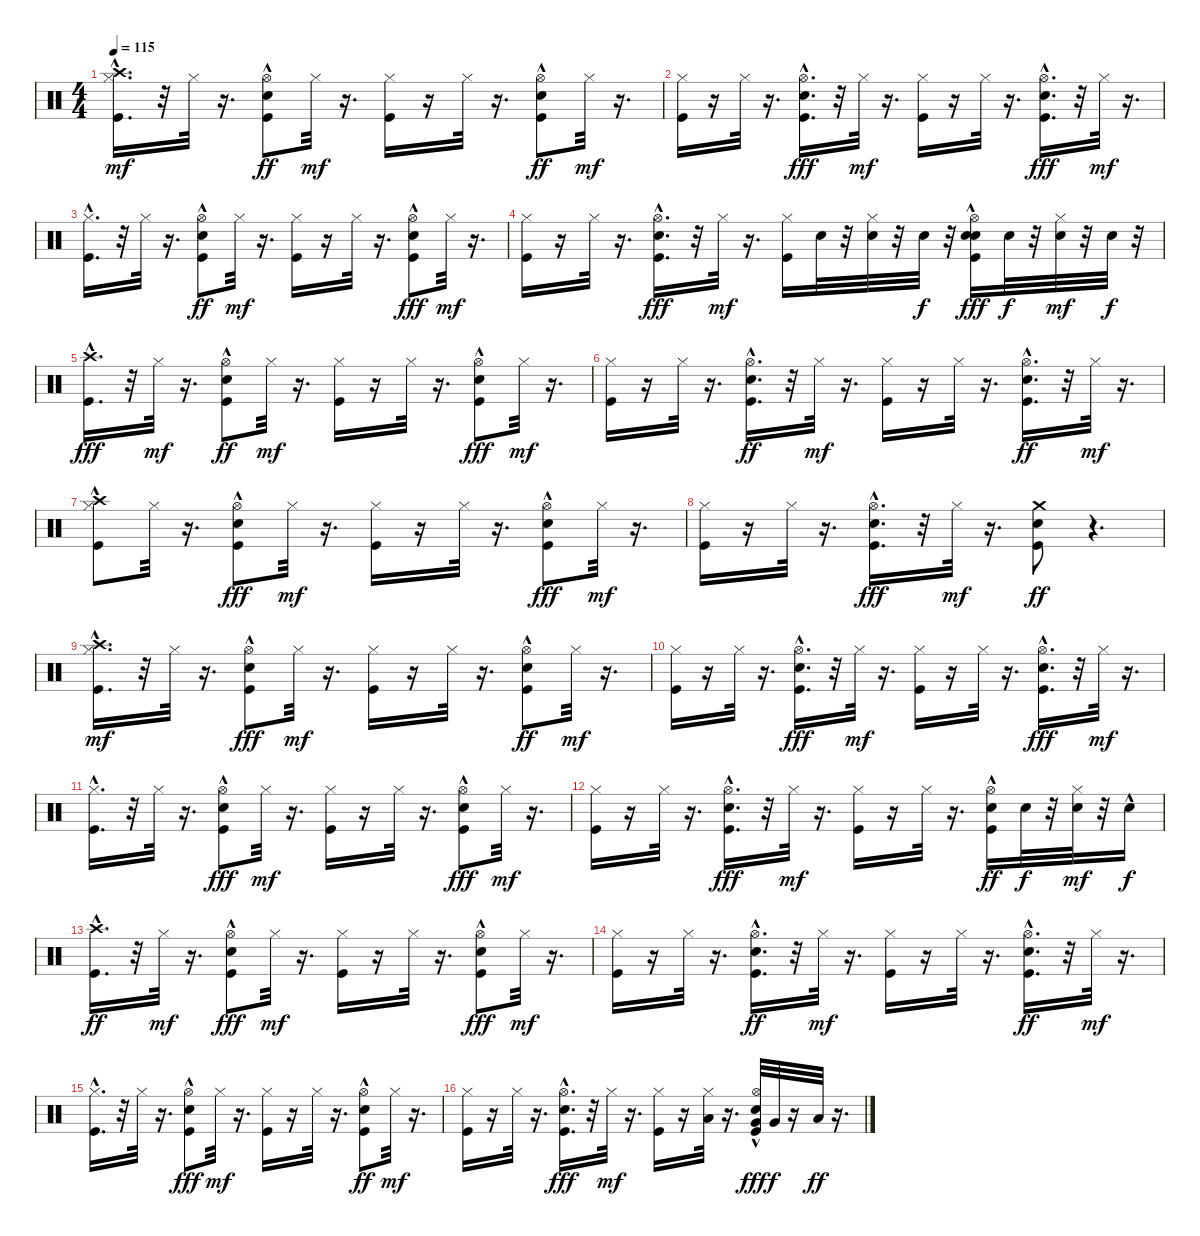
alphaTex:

\track "" {instrument percussion}
\staff {score}
\articulation defaults
\ts (4 4)
\tempo 115
\clef neutral
\ks c
("Crash high (hit)" "Kick (hit)"{hac} "Hi-Hat (closed)").16{d dy mf} r.32 "Hi-Hat (closed)".32 r.16{d} ("Electric Snare (hit)"{hac} "Kick (hit)"{hac} "Hi-Hat (open)").8{dy ff} "Hi-Hat (closed)".32{dy mf} r.16{d} ("Kick (hit)" "Hi-Hat (closed)").16 r.16 "Hi-Hat (closed)".32 r.16{d} ("Electric Snare (hit)"{hac} "Kick (hit)"{hac} "Hi-Hat (open)").8{dy ff} "Hi-Hat (closed)".32{dy mf} r.16{d} |
("Kick (hit)" "Hi-Hat (closed)").16 r.16 "Hi-Hat (closed)".32 r.16{d} ("Hi-Hat (open)"{hac} "Electric Snare (hit)" "Kick (hit)"{hac}).16{d dy fff} r.32 "Hi-Hat (closed)".32{dy mf} r.16{d} ("Kick (hit)" "Hi-Hat (closed)").16 r.16 "Hi-Hat (closed)".32 r.16{d} ("Electric Snare (hit)" "Hi-Hat (open)" "Kick (hit)"{hac}).16{d dy fff} r.32 "Hi-Hat (closed)".32{dy mf} r.16{d} |
("Kick (hit)"{hac} "Hi-Hat (closed)").16{d} r.32 "Hi-Hat (closed)".32 r.16{d} ("Electric Snare (hit)" "Kick (hit)"{hac} "Hi-Hat (open)").8{dy ff} "Hi-Hat (closed)".32{dy mf} r.16{d} ("Kick (hit)" "Hi-Hat (closed)").16 r.16 "Hi-Hat (closed)".32 r.16{d} ("Hi-Hat (open)" "Electric Snare (hit)" "Kick (hit)"{hac}).8{dy fff} "Hi-Hat (closed)".32{dy mf} r.16{d} |
("Kick (hit)" "Hi-Hat (closed)").16 r.16 "Hi-Hat (closed)".32 r.16{d} ("Electric Snare (hit)" "Kick (hit)"{hac} "Hi-Hat (open)"{hac}).16{d dy fff} r.32 "Hi-Hat (closed)".32{dy mf} r.16{d} ("Kick (hit)" "Hi-Hat (closed)").16 "Electric Snare (hit)".32 r.32 ("Electric Snare (hit)" "Hi-Hat (closed)").32 r.32 "Electric Snare (hit)".32{dy f} r.32 ("Electric Snare (hit)" "Hi-Hat (open)" "Electric Snare (hit)" "Kick (hit)"{hac}).16{dy fff} "Electric Snare (hit)".32{dy f} r.32 ("Electric Snare (hit)" "Hi-Hat (closed)").32{dy mf} r.32 "Electric Snare (hit)".32{dy f} r.32 |
("Crash high (hit)" "Kick (hit)"{hac}).16{d dy fff} r.32 "Hi-Hat (closed)".32{dy mf} r.16{d} ("Electric Snare (hit)"{hac} "Kick (hit)"{hac} "Hi-Hat (open)").8{dy ff} "Hi-Hat (closed)".32{dy mf} r.16{d} ("Kick (hit)" "Hi-Hat (closed)").16 r.16 "Hi-Hat (closed)".32 r.16{d} ("Hi-Hat (open)" "Electric Snare (hit)"{hac} "Kick (hit)"{hac}).8{dy fff} "Hi-Hat (closed)".32{dy mf} r.16{d} |
("Kick (hit)" "Hi-Hat (closed)").16 r.16 "Hi-Hat (closed)".32 r.16{d} ("Kick (hit)"{hac} "Hi-Hat (open)"{hac} "Electric Snare (hit)").16{d dy ff} r.32 "Hi-Hat (closed)".32{dy mf} r.16{d} ("Kick (hit)" "Hi-Hat (closed)").16 r.16 "Hi-Hat (closed)".32 r.16{d} ("Electric Snare (hit)" "Kick (hit)"{hac} "Hi-Hat (open)").16{d dy ff} r.32 "Hi-Hat (closed)".32{dy mf} r.16{d} |
("Kick (hit)"{hac} "Crash high (hit)" "Hi-Hat (closed)").8 "Hi-Hat (closed)".32 r.16{d} ("Hi-Hat (open)" "Kick (hit)"{hac} "Electric Snare (hit)").8{dy fff} "Hi-Hat (closed)".32{dy mf} r.16{d} ("Kick (hit)" "Hi-Hat (closed)").16 r.16 "Hi-Hat (closed)".32 r.16{d} ("Hi-Hat (open)" "Kick (hit)"{hac} "Electric Snare (hit)").8{dy fff} "Hi-Hat (closed)".32{dy mf} r.16{d} |
("Kick (hit)" "Hi-Hat (closed)").16 r.16 "Hi-Hat (closed)".32 r.16{d} ("Electric Snare (hit)" "Kick (hit)"{hac} "Hi-Hat (open)"{hac}).16{d dy fff} r.32 "Hi-Hat (closed)".32{dy mf} r.16{d} ("Kick (hit)" "Electric Snare (hit)" "Crash medium (hit)").8{dy ff} r.4{d} |
("Kick (hit)"{hac} "Crash high (hit)" "Hi-Hat (closed)").16{d dy mf} r.32 "Hi-Hat (closed)".32 r.16{d} ("Electric Snare (hit)"{hac} "Hi-Hat (open)" "Kick (hit)"{hac}).8{dy fff} "Hi-Hat (closed)".32{dy mf} r.16{d} ("Kick (hit)" "Hi-Hat (closed)").16 r.16 "Hi-Hat (closed)".32 r.16{d} ("Electric Snare (hit)"{hac} "Kick (hit)"{hac} "Hi-Hat (open)").8{dy ff} "Hi-Hat (closed)".32{dy mf} r.16{d} |
("Kick (hit)" "Hi-Hat (closed)").16 r.16 "Hi-Hat (closed)".32 r.16{d} ("Electric Snare (hit)" "Kick (hit)"{hac} "Hi-Hat (open)"{hac}).16{d dy fff} r.32 "Hi-Hat (closed)".32{dy mf} r.16{d} ("Kick (hit)" "Hi-Hat (closed)").16 r.16 "Hi-Hat (closed)".32 r.16{d} ("Electric Snare (hit)" "Hi-Hat (open)" "Kick (hit)"{hac}).16{d dy fff} r.32 "Hi-Hat (closed)".32{dy mf} r.16{d} |
("Kick (hit)"{hac} "Hi-Hat (closed)").16{d} r.32 "Hi-Hat (closed)".32 r.16{d} ("Hi-Hat (open)" "Kick (hit)"{hac} "Electric Snare (hit)").8{dy fff} "Hi-Hat (closed)".32{dy mf} r.16{d} ("Kick (hit)" "Hi-Hat (closed)").16 r.16 "Hi-Hat (closed)".32 r.16{d} ("Hi-Hat (open)" "Electric Snare (hit)" "Kick (hit)"{hac}).8{dy fff} "Hi-Hat (closed)".32{dy mf} r.16{d} |
("Kick (hit)" "Hi-Hat (closed)").16 r.16 "Hi-Hat (closed)".32 r.16{d} ("Electric Snare (hit)" "Hi-Hat (open)"{hac} "Kick (hit)"{hac}).16{d dy fff} r.32 "Hi-Hat (closed)".32{dy mf} r.16{d} ("Kick (hit)" "Hi-Hat (closed)").16 r.16 "Hi-Hat (closed)".32 r.16{d} ("Hi-Hat (open)" "Kick (hit)"{hac} "Electric Snare (hit)").16{dy ff} "Electric Snare (hit)".32{dy f} r.32 ("Electric Snare (hit)" "Hi-Hat (closed)").32{dy mf} r.32 "Electric Snare (hit)"{hac}.16{dy f} |
("Crash high (hit)" "Kick (hit)"{hac}).16{d dy ff} r.32 "Hi-Hat (closed)".32{dy mf} r.16{d} ("Hi-Hat (open)" "Electric Snare (hit)"{hac} "Kick (hit)"{hac}).8{dy fff} "Hi-Hat (closed)".32{dy mf} r.16{d} ("Kick (hit)" "Hi-Hat (closed)").16 r.16 "Hi-Hat (closed)".32 r.16{d} ("Hi-Hat (open)" "Kick (hit)"{hac} "Electric Snare (hit)"{hac}).8{dy fff} "Hi-Hat (closed)".32{dy mf} r.16{d} |
("Kick (hit)" "Hi-Hat (closed)").16 r.16 "Hi-Hat (closed)".32 r.16{d} ("Hi-Hat (open)"{hac} "Kick (hit)"{hac} "Electric Snare (hit)").16{d dy ff} r.32 "Hi-Hat (closed)".32{dy mf} r.16{d} ("Kick (hit)" "Hi-Hat (closed)").16 r.16 "Hi-Hat (closed)".32 r.16{d} ("Kick (hit)"{hac} "Hi-Hat (open)" "Electric Snare (hit)").16{d dy ff} r.32 "Hi-Hat (closed)".32{dy mf} r.16{d} |
("Kick (hit)"{hac} "Hi-Hat (closed)").16{d} r.32 "Hi-Hat (closed)".32 r.16{d} ("Kick (hit)"{hac} "Hi-Hat (open)" "Electric Snare (hit)").8{dy fff} "Hi-Hat (closed)".32{dy mf} r.16{d} ("Kick (hit)" "Hi-Hat (closed)").16 r.16 "Hi-Hat (closed)".32 r.16{d} ("Electric Snare (hit)" "Kick (hit)"{hac} "Hi-Hat (open)").8{dy ff} "Hi-Hat (closed)".32{dy mf} r.16{d} |
("Kick (hit)" "Hi-Hat (closed)").16 r.16 "Hi-Hat (closed)".32 r.16{d} ("Electric Snare (hit)" "Hi-Hat (open)"{hac} "Kick (hit)"{hac}).16{d dy fff} r.32 "Hi-Hat (closed)".32{dy mf} r.16{d} ("Kick (hit)" "Hi-Hat (closed)").16 r.16 ("Low Floor Tom (hit)" "Hi-Hat (closed)").32 r.16{d} ("Kick (hit)"{hac} "Hi-Hat (open)" "Very Low Tom (hit)" "Electric Snare (hit)"{hac}).32{dy fff} "Very Low Tom (hit)".32{dy f} r.16 "Low Tom (hit)".32{dy ff} r.16{d}
